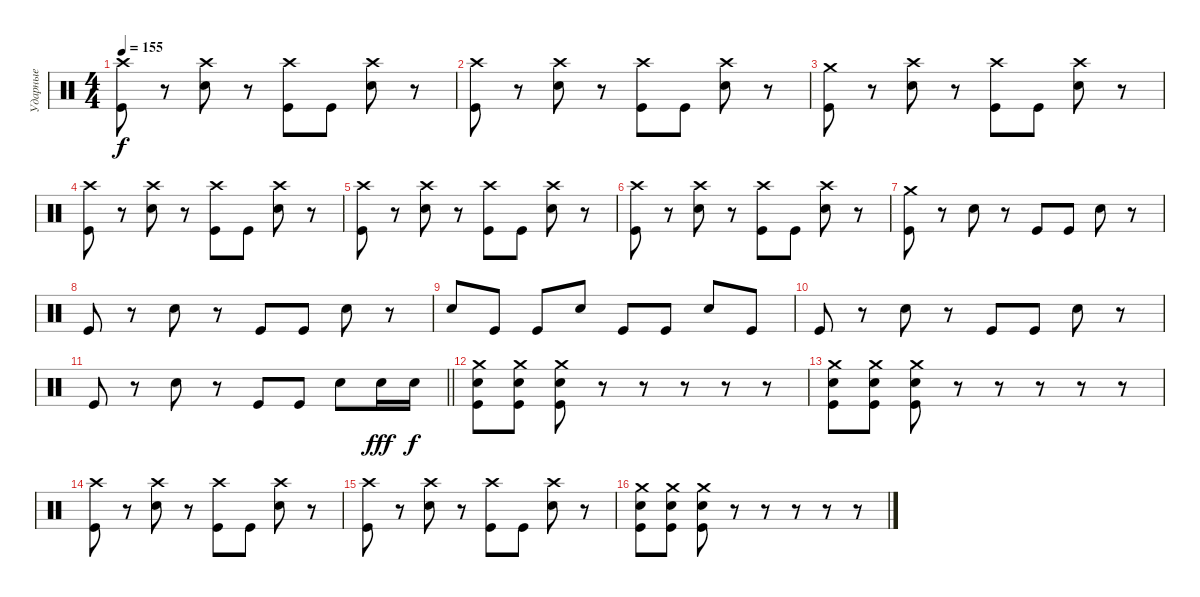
\track ("Ударные" "Ударные") {instrument percussion}
\staff {score}
\articulation defaults
\ts (4 4)
\tempo 155
\clef neutral
\ks c
("Crash high (hit)" "Kick (hit)").8{dy f} r.8 ("Crash high (hit)" "Electric Snare (hit)").8 r.8 ("Crash high (hit)" "Kick (hit)").8 "Kick (hit)".8 ("Crash high (hit)" "Electric Snare (hit)").8 r.8 |
("Crash high (hit)" "Kick (hit)").8 r.8 ("Crash high (hit)" "Electric Snare (hit)").8 r.8 ("Crash high (hit)" "Kick (hit)").8 "Kick (hit)".8 ("Crash high (hit)" "Electric Snare (hit)").8 r.8 |
("Crash medium (hit)" "Kick (hit)").8 r.8 ("Crash high (hit)" "Electric Snare (hit)").8 r.8 ("Crash high (hit)" "Kick (hit)").8 "Kick (hit)".8 ("Crash high (hit)" "Electric Snare (hit)").8 r.8 |
("Crash high (hit)" "Kick (hit)").8 r.8 ("Crash high (hit)" "Electric Snare (hit)").8 r.8 ("Crash high (hit)" "Kick (hit)").8 "Kick (hit)".8 ("Crash high (hit)" "Electric Snare (hit)").8 r.8 |
("Crash high (hit)" "Kick (hit)").8 r.8 ("Crash high (hit)" "Electric Snare (hit)").8 r.8 ("Crash high (hit)" "Kick (hit)").8 "Kick (hit)".8 ("Crash high (hit)" "Electric Snare (hit)").8 r.8 |
("Crash high (hit)" "Kick (hit)").8 r.8 ("Crash high (hit)" "Electric Snare (hit)").8 r.8 ("Crash high (hit)" "Kick (hit)").8 "Kick (hit)".8 ("Crash high (hit)" "Electric Snare (hit)").8 r.8 |
("Crash medium (hit)" "Kick (hit)").8 r.8 "Electric Snare (hit)".8 r.8 "Kick (hit)".8 "Kick (hit)".8 "Electric Snare (hit)".8 r.8 |
"Kick (hit)".8 r.8 "Electric Snare (hit)".8 r.8 "Kick (hit)".8 "Kick (hit)".8 "Electric Snare (hit)".8 r.8 |
"Electric Snare (hit)".8 "Kick (hit)".8 "Kick (hit)".8 "Electric Snare (hit)".8 "Kick (hit)".8 "Kick (hit)".8 "Electric Snare (hit)".8 "Kick (hit)".8 |
"Kick (hit)".8 r.8 "Electric Snare (hit)".8 r.8 "Kick (hit)".8 "Kick (hit)".8 "Electric Snare (hit)".8 r.8 |
\barLineRight lightlight "Kick (hit)".8
r.8 "Electric Snare (hit)".8 r.8 "Kick (hit)".8 "Kick (hit)".8 "Electric Snare (hit)".8 "Electric Snare (hit)".16{dy fff} "Electric Snare (hit)".16{dy f} |
("Crash medium (hit)" "Kick (hit)" "Electric Snare (hit)").8 ("Crash medium (hit)" "Kick (hit)" "Electric Snare (hit)").8 ("Crash medium (hit)" "Kick (hit)" "Electric Snare (hit)").8 r.8 r.8 r.8 r.8 r.8 |
("Crash medium (hit)" "Kick (hit)" "Electric Snare (hit)").8 ("Crash medium (hit)" "Kick (hit)" "Electric Snare (hit)").8 ("Crash medium (hit)" "Kick (hit)" "Electric Snare (hit)").8 r.8 r.8 r.8 r.8 r.8 |
("Crash high (hit)" "Kick (hit)").8 r.8 ("Crash high (hit)" "Electric Snare (hit)").8 r.8 ("Crash high (hit)" "Kick (hit)").8 "Kick (hit)".8 ("Crash high (hit)" "Electric Snare (hit)").8 r.8 |
("Crash high (hit)" "Kick (hit)").8 r.8 ("Crash high (hit)" "Electric Snare (hit)").8 r.8 ("Crash high (hit)" "Kick (hit)").8 "Kick (hit)".8 ("Crash high (hit)" "Electric Snare (hit)").8 r.8 |
("Crash medium (hit)" "Kick (hit)" "Electric Snare (hit)").8 ("Crash medium (hit)" "Kick (hit)" "Electric Snare (hit)").8 ("Crash medium (hit)" "Kick (hit)" "Electric Snare (hit)").8 r.8 r.8 r.8 r.8 r.8
